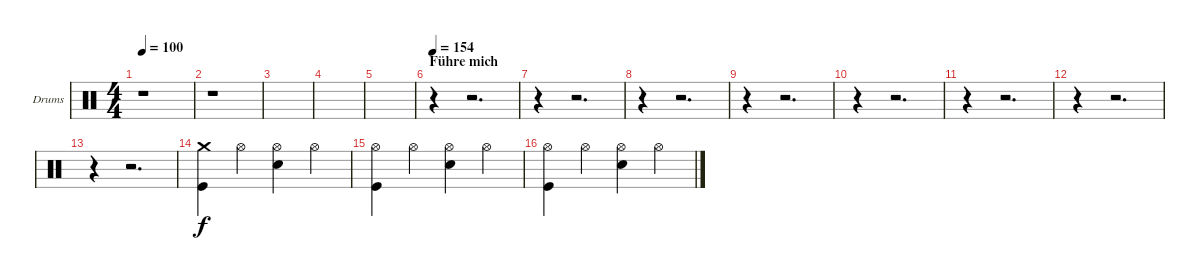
\bracketExtendMode groupsimilarinstruments
\firstSystemTrackNameOrientation horizontal
\otherSystemsTrackNameOrientation horizontal
\track ("Drumkit (Christoph)" "Drums") {instrument percussion}
\staff {score}
\articulation defaults
\ts (4 4)
\tempo 100
\clef neutral
\ks c
r.1{dy f} |
r.1 |
|
|
|
\section ("" "Führe mich")
\tempo 154
r.4 r.2{d} |
r.4 r.2{d} |
r.4 r.2{d} |
r.4 r.2{d} |
r.4 r.2{d} |
r.4 r.2{d} |
r.4 r.2{d} |
r.4 r.2{d} |
("Crash medium (hit)" "Kick (hit)").4 "Hi-Hat (open)".4 ("Hi-Hat (open)" "Snare (hit) 2").4 "Hi-Hat (open)".4 |
("Hi-Hat (open)" "Kick (hit)").4 "Hi-Hat (open)".4 ("Hi-Hat (open)" "Snare (hit) 2").4 "Hi-Hat (open)".4 |
("Hi-Hat (open)" "Kick (hit)").4 "Hi-Hat (open)".4 ("Hi-Hat (open)" "Snare (hit) 2").4 "Hi-Hat (open)".4
